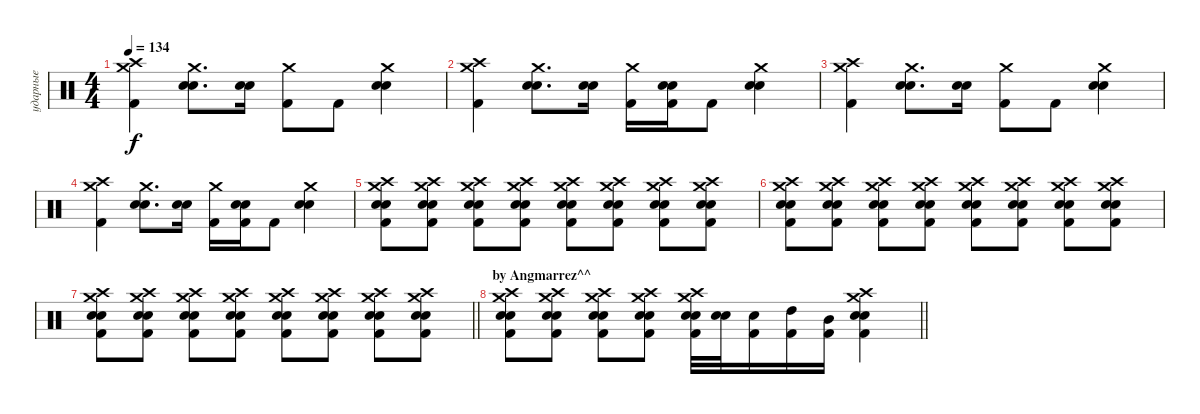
\track ("ударные" "ударные") {instrument percussion}
\staff {score}
\articulation defaults
\ts (4 4)
\tempo 134
\clef neutral
\ks c
("Crash high (hit)" "Crash medium (hit)" "Kick (hit) 2").4{dy f} ("Crash medium (hit)" "Snare (hit) 2" "Electric Snare (hit)").8{d} ("Snare (hit) 2" "Electric Snare (hit)").16 ("Crash medium (hit)" "Kick (hit) 2").8 "Kick (hit) 2".8 ("Crash medium (hit)" "Snare (hit) 2" "Electric Snare (hit)").4 |
("Crash high (hit)" "Crash medium (hit)" "Kick (hit) 2").4 ("Crash medium (hit)" "Snare (hit) 2" "Electric Snare (hit)").8{d} ("Snare (hit) 2" "Electric Snare (hit)").16 ("Crash medium (hit)" "Kick (hit) 2").16 ("Snare (hit) 2" "Electric Snare (hit)" "Kick (hit) 2").16 "Kick (hit) 2".8 ("Crash medium (hit)" "Snare (hit) 2" "Electric Snare (hit)").4 |
("Crash high (hit)" "Crash medium (hit)" "Kick (hit) 2").4 ("Crash medium (hit)" "Snare (hit) 2" "Electric Snare (hit)").8{d} ("Snare (hit) 2" "Electric Snare (hit)").16 ("Crash medium (hit)" "Kick (hit) 2").8 "Kick (hit) 2".8 ("Crash medium (hit)" "Snare (hit) 2" "Electric Snare (hit)").4 |
("Crash high (hit)" "Crash medium (hit)" "Kick (hit) 2").4 ("Crash medium (hit)" "Snare (hit) 2" "Electric Snare (hit)").8{d} ("Snare (hit) 2" "Electric Snare (hit)").16 ("Crash medium (hit)" "Kick (hit) 2").16 ("Snare (hit) 2" "Electric Snare (hit)" "Kick (hit) 2").16 "Kick (hit) 2".8 ("Crash medium (hit)" "Snare (hit) 2" "Electric Snare (hit)").4 |
("Crash high (hit)" "Crash medium (hit)" "Snare (hit) 2" "Electric Snare (hit)" "Kick (hit) 2").8 ("Crash high (hit)" "Crash medium (hit)" "Snare (hit) 2" "Electric Snare (hit)" "Kick (hit) 2").8 ("Crash high (hit)" "Crash medium (hit)" "Snare (hit) 2" "Electric Snare (hit)" "Kick (hit) 2").8 ("Crash high (hit)" "Crash medium (hit)" "Snare (hit) 2" "Electric Snare (hit)" "Kick (hit) 2").8 ("Crash high (hit)" "Crash medium (hit)" "Snare (hit) 2" "Electric Snare (hit)" "Kick (hit) 2").8 ("Crash high (hit)" "Crash medium (hit)" "Snare (hit) 2" "Electric Snare (hit)" "Kick (hit) 2").8 ("Crash high (hit)" "Crash medium (hit)" "Snare (hit) 2" "Electric Snare (hit)" "Kick (hit) 2").8 ("Crash high (hit)" "Crash medium (hit)" "Snare (hit) 2" "Electric Snare (hit)" "Kick (hit) 2").8 |
("Crash high (hit)" "Crash medium (hit)" "Snare (hit) 2" "Electric Snare (hit)" "Kick (hit) 2").8 ("Crash high (hit)" "Crash medium (hit)" "Snare (hit) 2" "Electric Snare (hit)" "Kick (hit) 2").8 ("Crash high (hit)" "Crash medium (hit)" "Snare (hit) 2" "Electric Snare (hit)" "Kick (hit) 2").8 ("Crash high (hit)" "Crash medium (hit)" "Snare (hit) 2" "Electric Snare (hit)" "Kick (hit) 2").8 ("Crash high (hit)" "Crash medium (hit)" "Snare (hit) 2" "Electric Snare (hit)" "Kick (hit) 2").8 ("Crash high (hit)" "Crash medium (hit)" "Snare (hit) 2" "Electric Snare (hit)" "Kick (hit) 2").8 ("Crash high (hit)" "Crash medium (hit)" "Snare (hit) 2" "Electric Snare (hit)" "Kick (hit) 2").8 ("Crash high (hit)" "Crash medium (hit)" "Snare (hit) 2" "Electric Snare (hit)" "Kick (hit) 2").8 |
\barLineRight lightlight
("Crash high (hit)" "Crash medium (hit)" "Snare (hit) 2" "Electric Snare (hit)" "Kick (hit) 2").8 ("Crash high (hit)" "Crash medium (hit)" "Snare (hit) 2" "Electric Snare (hit)" "Kick (hit) 2").8 ("Crash high (hit)" "Crash medium (hit)" "Snare (hit) 2" "Electric Snare (hit)" "Kick (hit) 2").8 ("Crash high (hit)" "Crash medium (hit)" "Snare (hit) 2" "Electric Snare (hit)" "Kick (hit) 2").8 ("Crash high (hit)" "Crash medium (hit)" "Snare (hit) 2" "Electric Snare (hit)" "Kick (hit) 2").8 ("Crash high (hit)" "Crash medium (hit)" "Snare (hit) 2" "Electric Snare (hit)" "Kick (hit) 2").8 ("Crash high (hit)" "Crash medium (hit)" "Snare (hit) 2" "Electric Snare (hit)" "Kick (hit) 2").8 ("Crash high (hit)" "Crash medium (hit)" "Snare (hit) 2" "Electric Snare (hit)" "Kick (hit) 2").8 |
\section ("" "by Angmarrez^^")
\barLineRight lightlight
("Crash high (hit)" "Crash medium (hit)" "Snare (hit) 2" "Electric Snare (hit)" "Kick (hit) 2").8 ("Crash high (hit)" "Crash medium (hit)" "Snare (hit) 2" "Electric Snare (hit)" "Kick (hit) 2").8 ("Crash high (hit)" "Crash medium (hit)" "Snare (hit) 2" "Electric Snare (hit)" "Kick (hit) 2").8 ("Crash high (hit)" "Crash medium (hit)" "Snare (hit) 2" "Electric Snare (hit)" "Kick (hit) 2").8 ("Crash high (hit)" "Crash medium (hit)" "Snare (hit) 2" "Electric Snare (hit)" "Kick (hit) 2").32 ("Snare (hit) 2" "Electric Snare (hit)").32 ("Snare (hit) 2" "Kick (hit) 2").16 ("High Tom (hit)" "Kick (hit) 2").16 ("Mid Tom (hit)" "Kick (hit) 2").16 ("Crash high (hit)" "Crash medium (hit)" "Snare (hit) 2" "Electric Snare (hit)" "Kick (hit) 2").4
